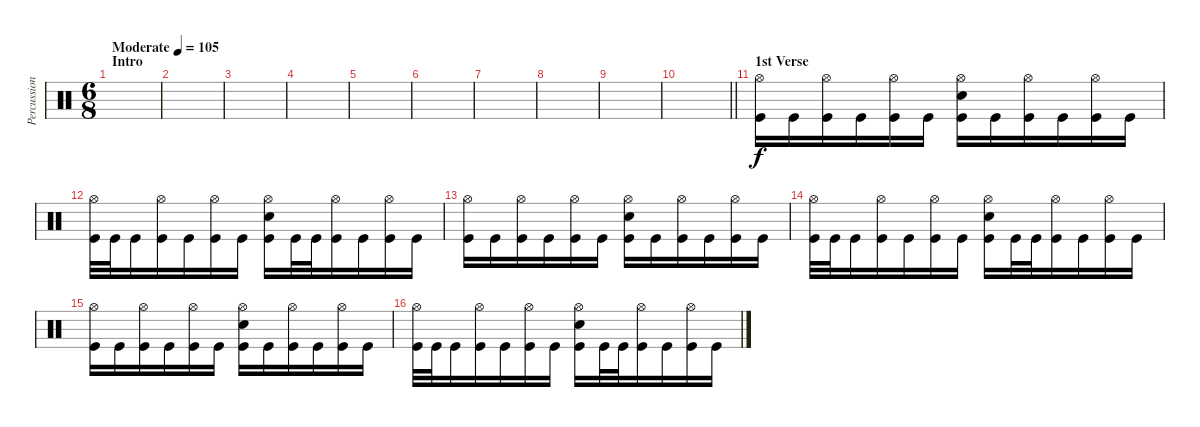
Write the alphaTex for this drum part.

\track ("Percussion" "Percussion") {instrument percussion}
\staff {score}
\articulation defaults
\ts (6 8)
\section ("" "Intro")
\tempo (105 "Moderate")
\clef neutral
\ks c
|
|
|
|
|
|
|
|
|
\barLineRight lightlight
|
\section ("" "1st Verse")
("Hi-Hat (open)" "Kick (hit)").16 "Kick (hit)".16 ("Hi-Hat (open)" "Kick (hit)").16 "Kick (hit)".16 ("Hi-Hat (open)" "Kick (hit)").16 "Kick (hit)".16 ("Hi-Hat (open)" "Electric Snare (hit)" "Kick (hit)").16 "Kick (hit)".16 ("Hi-Hat (open)" "Kick (hit)").16 "Kick (hit)".16 ("Hi-Hat (open)" "Kick (hit)").16 "Kick (hit)".16 |
("Hi-Hat (open)" "Kick (hit)").32 "Kick (hit)".32 "Kick (hit)".16 ("Hi-Hat (open)" "Kick (hit)").16 "Kick (hit)".16 ("Hi-Hat (open)" "Kick (hit)").16 "Kick (hit)".16 ("Hi-Hat (open)" "Electric Snare (hit)" "Kick (hit)").16 "Kick (hit)".32 "Kick (hit)".32 ("Hi-Hat (open)" "Kick (hit)").16 "Kick (hit)".16 ("Hi-Hat (open)" "Kick (hit)").16 "Kick (hit)".16 |
("Hi-Hat (open)" "Kick (hit)").16 "Kick (hit)".16 ("Hi-Hat (open)" "Kick (hit)").16 "Kick (hit)".16 ("Hi-Hat (open)" "Kick (hit)").16 "Kick (hit)".16 ("Hi-Hat (open)" "Electric Snare (hit)" "Kick (hit)").16 "Kick (hit)".16 ("Hi-Hat (open)" "Kick (hit)").16 "Kick (hit)".16 ("Hi-Hat (open)" "Kick (hit)").16 "Kick (hit)".16 |
("Hi-Hat (open)" "Kick (hit)").32 "Kick (hit)".32 "Kick (hit)".16 ("Hi-Hat (open)" "Kick (hit)").16 "Kick (hit)".16 ("Hi-Hat (open)" "Kick (hit)").16 "Kick (hit)".16 ("Hi-Hat (open)" "Electric Snare (hit)" "Kick (hit)").16 "Kick (hit)".32 "Kick (hit)".32 ("Hi-Hat (open)" "Kick (hit)").16 "Kick (hit)".16 ("Hi-Hat (open)" "Kick (hit)").16 "Kick (hit)".16 |
("Hi-Hat (open)" "Kick (hit)").16 "Kick (hit)".16 ("Hi-Hat (open)" "Kick (hit)").16 "Kick (hit)".16 ("Hi-Hat (open)" "Kick (hit)").16 "Kick (hit)".16 ("Hi-Hat (open)" "Electric Snare (hit)" "Kick (hit)").16 "Kick (hit)".16 ("Hi-Hat (open)" "Kick (hit)").16 "Kick (hit)".16 ("Hi-Hat (open)" "Kick (hit)").16 "Kick (hit)".16 |
("Hi-Hat (open)" "Kick (hit)").32 "Kick (hit)".32 "Kick (hit)".16 ("Hi-Hat (open)" "Kick (hit)").16 "Kick (hit)".16 ("Hi-Hat (open)" "Kick (hit)").16 "Kick (hit)".16 ("Hi-Hat (open)" "Electric Snare (hit)" "Kick (hit)").16 "Kick (hit)".32 "Kick (hit)".32 ("Hi-Hat (open)" "Kick (hit)").16 "Kick (hit)".16 ("Hi-Hat (open)" "Kick (hit)").16 "Kick (hit)".16
